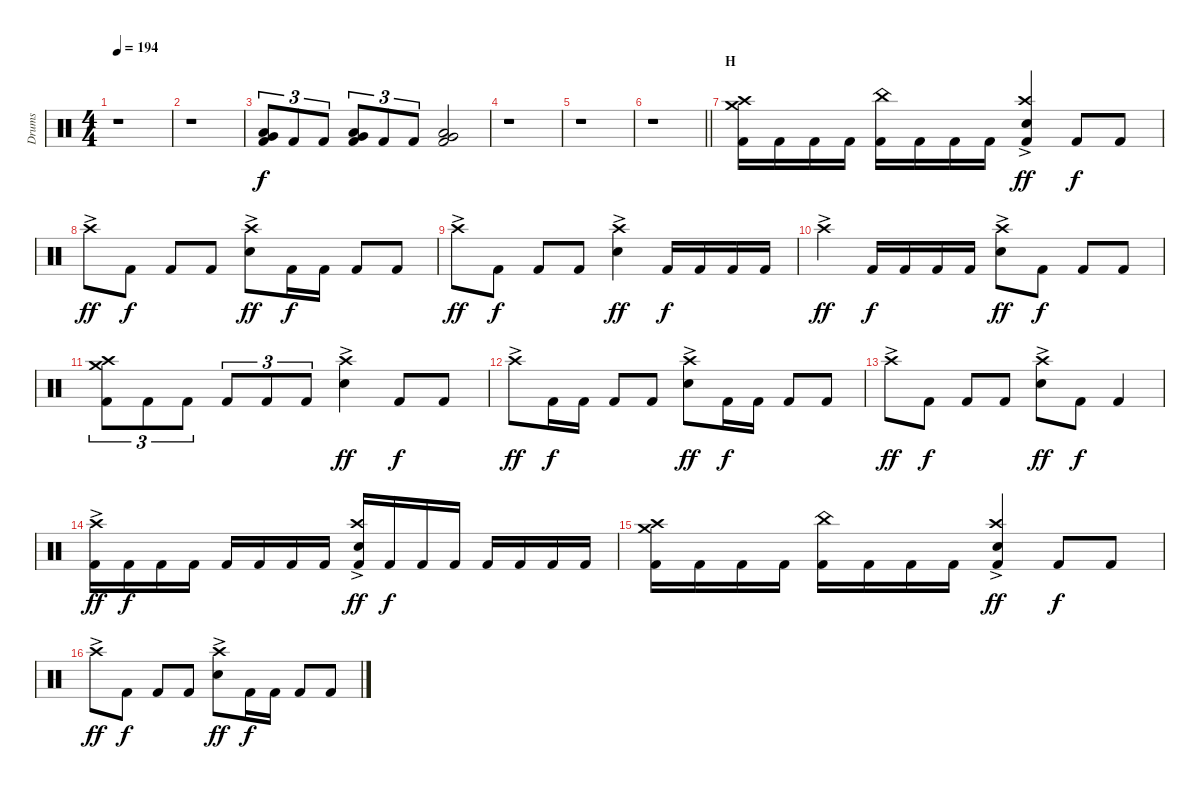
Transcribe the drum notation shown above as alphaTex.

\track ("Drums" "Drums") {instrument percussion}
\staff {score}
\articulation defaults
\ts (4 4)
\tempo 194
\clef neutral
\ks c
r.1{dy f} |
r.1 |
("Low Tom (hit)" "Very Low Tom (hit)" "Kick (hit) 2").8{tu (3 2)} "Kick (hit) 2".8{tu (3 2)} "Kick (hit) 2".8{tu (3 2)} ("Low Tom (hit)" "Very Low Tom (hit)" "Kick (hit) 2").8{tu (3 2)} "Kick (hit) 2".8{tu (3 2)} "Kick (hit) 2".8{tu (3 2)} ("Very Low Tom (hit)" "Low Floor Tom (hit)" "Kick (hit) 2").2 |
r.1 |
r.1 |
\barLineRight lightlight
r.1 |
\section ("" "H")
("Crash medium (hit)" "Crash high (hit)" "Kick (hit) 2").16 "Kick (hit) 2".16 "Kick (hit) 2".16 "Kick (hit) 2".16 ("China (hit)" "Kick (hit) 2").16 "Kick (hit) 2".16 "Kick (hit) 2".16 "Kick (hit) 2".16 ("Crash high (hit)"{ac} "Electric Snare (hit)" "Kick (hit) 2").4{dy ff} "Kick (hit) 2".8{dy f} "Kick (hit) 2".8 |
"Crash high (hit)"{ac}.8{dy ff} "Kick (hit) 2".8{dy f} "Kick (hit) 2".8 "Kick (hit) 2".8 ("Crash high (hit)"{ac} "Electric Snare (hit)").8{dy ff} "Kick (hit) 2".16{dy f} "Kick (hit) 2".16 "Kick (hit) 2".8 "Kick (hit) 2".8 |
"Crash high (hit)"{ac}.8{dy ff} "Kick (hit) 2".8{dy f} "Kick (hit) 2".8 "Kick (hit) 2".8 ("Crash high (hit)"{ac} "Electric Snare (hit)").4{dy ff} "Kick (hit) 2".16{dy f} "Kick (hit) 2".16 "Kick (hit) 2".16 "Kick (hit) 2".16 |
"Crash high (hit)"{ac}.4{dy ff} "Kick (hit) 2".16{dy f} "Kick (hit) 2".16 "Kick (hit) 2".16 "Kick (hit) 2".16 ("Crash high (hit)"{ac} "Electric Snare (hit)").8{dy ff} "Kick (hit) 2".8{dy f} "Kick (hit) 2".8 "Kick (hit) 2".8 |
("Crash medium (hit)" "Crash high (hit)" "Kick (hit) 2").8{tu (3 2)} "Kick (hit) 2".8{tu (3 2)} "Kick (hit) 2".8{tu (3 2)} "Kick (hit) 2".8{tu (3 2)} "Kick (hit) 2".8{tu (3 2)} "Kick (hit) 2".8{tu (3 2)} ("Crash high (hit)"{ac} "Electric Snare (hit)").4{dy ff} "Kick (hit) 2".8{dy f} "Kick (hit) 2".8 |
"Crash high (hit)"{ac}.8{dy ff} "Kick (hit) 2".16{dy f} "Kick (hit) 2".16 "Kick (hit) 2".8 "Kick (hit) 2".8 ("Crash high (hit)"{ac} "Electric Snare (hit)").8{dy ff} "Kick (hit) 2".16{dy f} "Kick (hit) 2".16 "Kick (hit) 2".8 "Kick (hit) 2".8 |
"Crash high (hit)"{ac}.8{dy ff} "Kick (hit) 2".8{dy f} "Kick (hit) 2".8 "Kick (hit) 2".8 ("Crash high (hit)"{ac} "Electric Snare (hit)").8{dy ff} "Kick (hit) 2".8{dy f} "Kick (hit) 2".4 |
("Crash high (hit)"{ac} "Kick (hit) 2").16{dy ff} "Kick (hit) 2".16{dy f} "Kick (hit) 2".16 "Kick (hit) 2".16 "Kick (hit) 2".16 "Kick (hit) 2".16 "Kick (hit) 2".16 "Kick (hit) 2".16 ("Crash high (hit)"{ac} "Electric Snare (hit)" "Kick (hit) 2").16{dy ff} "Kick (hit) 2".16{dy f} "Kick (hit) 2".16 "Kick (hit) 2".16 "Kick (hit) 2".16 "Kick (hit) 2".16 "Kick (hit) 2".16 "Kick (hit) 2".16 |
("Crash medium (hit)" "Crash high (hit)" "Kick (hit) 2").16 "Kick (hit) 2".16 "Kick (hit) 2".16 "Kick (hit) 2".16 ("China (hit)" "Kick (hit) 2").16 "Kick (hit) 2".16 "Kick (hit) 2".16 "Kick (hit) 2".16 ("Crash high (hit)"{ac} "Electric Snare (hit)" "Kick (hit) 2").4{dy ff} "Kick (hit) 2".8{dy f} "Kick (hit) 2".8 |
"Crash high (hit)"{ac}.8{dy ff} "Kick (hit) 2".8{dy f} "Kick (hit) 2".8 "Kick (hit) 2".8 ("Crash high (hit)"{ac} "Electric Snare (hit)").8{dy ff} "Kick (hit) 2".16{dy f} "Kick (hit) 2".16 "Kick (hit) 2".8 "Kick (hit) 2".8
